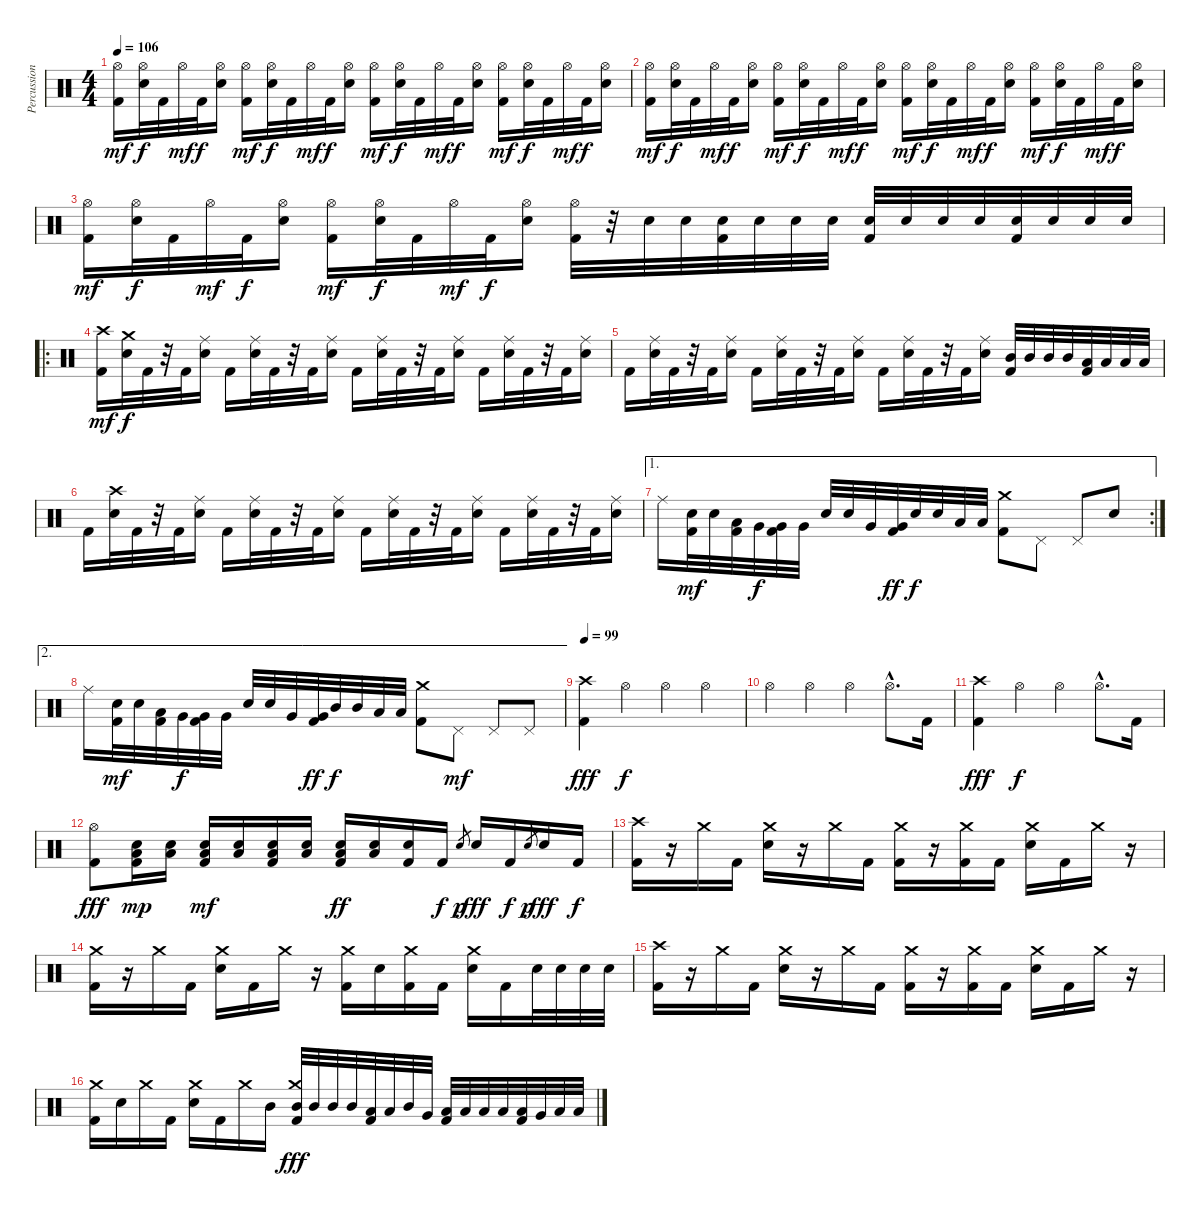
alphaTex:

\track ("Percussion" "Percussion") {instrument percussion}
\staff {score}
\articulation defaults
\ts (4 4)
\tempo 106
\clef neutral
\ks c
("Hi-Hat (open)" "Kick (hit) 2").16{dy mf} ("Hi-Hat (open)" "Electric Snare (hit)").32{dy f} "Kick (hit) 2".32 "Hi-Hat (open)".32{dy mf} "Kick (hit) 2".32{dy f} ("Hi-Hat (open)" "Electric Snare (hit)").16 ("Hi-Hat (open)" "Kick (hit) 2").16{dy mf} ("Hi-Hat (open)" "Electric Snare (hit)").32{dy f} "Kick (hit) 2".32 "Hi-Hat (open)".32{dy mf} "Kick (hit) 2".32{dy f} ("Hi-Hat (open)" "Electric Snare (hit)").16 ("Hi-Hat (open)" "Kick (hit) 2").16{dy mf} ("Hi-Hat (open)" "Electric Snare (hit)").32{dy f} "Kick (hit) 2".32 "Hi-Hat (open)".32{dy mf} "Kick (hit) 2".32{dy f} ("Hi-Hat (open)" "Electric Snare (hit)").16 ("Hi-Hat (open)" "Kick (hit) 2").16{dy mf} ("Hi-Hat (open)" "Electric Snare (hit)").32{dy f} "Kick (hit) 2".32 "Hi-Hat (open)".32{dy mf} "Kick (hit) 2".32{dy f} ("Hi-Hat (open)" "Electric Snare (hit)").16 |
("Hi-Hat (open)" "Kick (hit) 2").16{dy mf} ("Hi-Hat (open)" "Electric Snare (hit)").32{dy f} "Kick (hit) 2".32 "Hi-Hat (open)".32{dy mf} "Kick (hit) 2".32{dy f} ("Hi-Hat (open)" "Electric Snare (hit)").16 ("Hi-Hat (open)" "Kick (hit) 2").16{dy mf} ("Hi-Hat (open)" "Electric Snare (hit)").32{dy f} "Kick (hit) 2".32 "Hi-Hat (open)".32{dy mf} "Kick (hit) 2".32{dy f} ("Hi-Hat (open)" "Electric Snare (hit)").16 ("Hi-Hat (open)" "Kick (hit) 2").16{dy mf} ("Hi-Hat (open)" "Electric Snare (hit)").32{dy f} "Kick (hit) 2".32 "Hi-Hat (open)".32{dy mf} "Kick (hit) 2".32{dy f} ("Hi-Hat (open)" "Electric Snare (hit)").16 ("Hi-Hat (open)" "Kick (hit) 2").16{dy mf} ("Hi-Hat (open)" "Electric Snare (hit)").32{dy f} "Kick (hit) 2".32 "Hi-Hat (open)".32{dy mf} "Kick (hit) 2".32{dy f} ("Hi-Hat (open)" "Electric Snare (hit)").16 |
("Hi-Hat (open)" "Kick (hit) 2").16{dy mf} ("Hi-Hat (open)" "Electric Snare (hit)").32{dy f} "Kick (hit) 2".32 "Hi-Hat (open)".32{dy mf} "Kick (hit) 2".32{dy f} ("Hi-Hat (open)" "Electric Snare (hit)").16 ("Hi-Hat (open)" "Kick (hit) 2").16{dy mf} ("Hi-Hat (open)" "Electric Snare (hit)").32{dy f} "Kick (hit) 2".32 "Hi-Hat (open)".32{dy mf} "Kick (hit) 2".32{dy f} ("Hi-Hat (open)" "Electric Snare (hit)").16 ("Hi-Hat (open)" "Kick (hit) 2").32 r.32 "Electric Snare (hit)".32 "Electric Snare (hit)".32 ("Electric Snare (hit)" "Kick (hit) 2").32 "Electric Snare (hit)".32 "Electric Snare (hit)".32 "Electric Snare (hit)".32 ("Electric Snare (hit)" "Kick (hit) 2").32 "Electric Snare (hit)".32 "Electric Snare (hit)".32 "Electric Snare (hit)".32 ("Electric Snare (hit)" "Kick (hit) 2").32 "Electric Snare (hit)".32 "Electric Snare (hit)".32 "Electric Snare (hit)".32 |
\ro
("Crash high (hit)" "Kick (hit) 2").16{dy mf} ("Crash medium (hit)" "Electric Snare (hit)").32{dy f} "Kick (hit) 2".32 r.32 "Kick (hit) 2".32 ("Ride (middle)" "Electric Snare (hit)").16 "Kick (hit) 2".16 ("Ride (middle)" "Electric Snare (hit)").32 "Kick (hit) 2".32 r.32 "Kick (hit) 2".32 ("Ride (middle)" "Electric Snare (hit)").16 "Kick (hit) 2".16 ("Ride (middle)" "Electric Snare (hit)").32 "Kick (hit) 2".32 r.32 "Kick (hit) 2".32 ("Ride (middle)" "Electric Snare (hit)").16 "Kick (hit) 2".16 ("Ride (middle)" "Electric Snare (hit)").32 "Kick (hit) 2".32 r.32 "Kick (hit) 2".32 ("Ride (middle)" "Electric Snare (hit)").16 |
"Kick (hit) 2".16 ("Ride (middle)" "Electric Snare (hit)").32 "Kick (hit) 2".32 r.32 "Kick (hit) 2".32 ("Ride (middle)" "Electric Snare (hit)").16 "Kick (hit) 2".16 ("Ride (middle)" "Electric Snare (hit)").32 "Kick (hit) 2".32 r.32 "Kick (hit) 2".32 ("Ride (middle)" "Electric Snare (hit)").16 "Kick (hit) 2".16 ("Ride (middle)" "Electric Snare (hit)").32 "Kick (hit) 2".32 r.32 "Kick (hit) 2".32 ("Ride (middle)" "Electric Snare (hit)").16 ("Mid Tom (hit)" "Kick (hit) 2").32 "Mid Tom (hit)".32 "Mid Tom (hit)".32 "Mid Tom (hit)".32 ("Low Tom (hit)" "Kick (hit) 2").32 "Low Tom (hit)".32 "Low Tom (hit)".32 "Low Tom (hit)".32 |
"Kick (hit) 2".16 ("Crash high (hit)" "Electric Snare (hit)").32 "Kick (hit) 2".32 r.32 "Kick (hit) 2".32 ("Ride (middle)" "Electric Snare (hit)").16 "Kick (hit) 2".16 ("Ride (middle)" "Electric Snare (hit)").32 "Kick (hit) 2".32 r.32 "Kick (hit) 2".32 ("Ride (middle)" "Electric Snare (hit)").16 "Kick (hit) 2".16 ("Ride (middle)" "Electric Snare (hit)").32 "Kick (hit) 2".32 r.32 "Kick (hit) 2".32 ("Ride (middle)" "Electric Snare (hit)").16 "Kick (hit) 2".16 ("Ride (middle)" "Electric Snare (hit)").32 "Kick (hit) 2".32 r.32 "Kick (hit) 2".32 ("Ride (middle)" "Electric Snare (hit)").16 |
\ae 1
\rc 2 "Ride (middle)".16
("Electric Snare (hit)" "Kick (hit) 2").32{dy mf} "Electric Snare (hit)".32 ("Low Tom (hit)" "Kick (hit) 2").32 "Very Low Tom (hit)".32{dy f} ("Very Low Tom (hit)" "Kick (hit) 2").32 "Very Low Tom (hit)".32 "Electric Snare (hit)".32 "Electric Snare (hit)".32 "Very Low Tom (hit)".32 ("Very Low Tom (hit)" "Kick (hit) 2").32{dy ff} "Electric Snare (hit)".32{dy f} "Electric Snare (hit)".32 "Low Tom (hit)".32 "Low Tom (hit)".32 ("Crash medium (hit)" "Kick (hit) 2").8 "Pedal Hi-Hat (hit)".8 "Pedal Hi-Hat (hit)".8 "Electric Snare (hit)".8 |
\ae 2 "Ride (middle)".16
("Electric Snare (hit)" "Kick (hit) 2").32{dy mf} "Electric Snare (hit)".32 ("Low Tom (hit)" "Kick (hit) 2").32 "Very Low Tom (hit)".32{dy f} ("Very Low Tom (hit)" "Kick (hit) 2").32 "Very Low Tom (hit)".32 "Electric Snare (hit)".32 "Electric Snare (hit)".32 "Very Low Tom (hit)".32 ("Very Low Tom (hit)" "Kick (hit) 2").32{dy ff} "Mid Tom (hit)".32{dy f} "Mid Tom (hit)".32 "Low Tom (hit)".32 "Low Tom (hit)".32 ("Crash medium (hit)" "Kick (hit) 2").8 "Pedal Hi-Hat (hit)".8{dy mf} "Pedal Hi-Hat (hit)".8 "Pedal Hi-Hat (hit)".8 |
\tempo 99
("Crash high (hit)" "Kick (hit) 2").4{dy fff} "Hi-Hat (open)".4{dy f} "Hi-Hat (open)".4 "Hi-Hat (open)".4 |
"Hi-Hat (open)".4 "Hi-Hat (open)".4 "Hi-Hat (open)".4 "Hi-Hat (open)"{hac}.8{d} "Kick (hit) 2".16 |
("Crash high (hit)" "Kick (hit) 2").4{dy fff} "Hi-Hat (open)".4{dy f} "Hi-Hat (open)".4 "Hi-Hat (open)"{hac}.8{d} "Kick (hit) 2".16 |
("Hi-Hat (open)" "Kick (hit) 2").8{dy fff} ("Electric Snare (hit)" "Low Tom (hit)" "Kick (hit) 2").16{dy mp} ("Electric Snare (hit)" "Low Tom (hit)").16 ("Electric Snare (hit)" "Low Tom (hit)" "Kick (hit) 2").16{dy mf} ("Electric Snare (hit)" "Low Tom (hit)").16 ("Electric Snare (hit)" "Low Tom (hit)" "Kick (hit) 2").16 ("Electric Snare (hit)" "Low Tom (hit)").16 ("Electric Snare (hit)" "Low Tom (hit)" "Kick (hit) 2").16{dy ff} ("Electric Snare (hit)" "Low Tom (hit)").16 ("Electric Snare (hit)" "Kick (hit) 2").16 "Kick (hit) 2".16{dy f} "Electric Snare (hit)".8{gr dy p} "Electric Snare (hit)".16{dy fff} "Kick (hit) 2".16{dy f} "Electric Snare (hit)".8{gr dy p} "Electric Snare (hit)".16{dy fff} "Kick (hit) 2".16{dy f} |
("Crash high (hit)" "Kick (hit) 2").16 r.16 "Crash medium (hit)".16 "Kick (hit) 2".16 ("Crash medium (hit)" "Electric Snare (hit)").16 r.16 "Crash medium (hit)".16 "Kick (hit) 2".16 ("Crash medium (hit)" "Kick (hit) 2").16 r.16 ("Crash medium (hit)" "Kick (hit) 2").16 "Kick (hit) 2".16 ("Crash medium (hit)" "Electric Snare (hit)").16 "Kick (hit) 2".16 "Crash medium (hit)".16 r.16 |
("Crash medium (hit)" "Kick (hit) 2").16 r.16 "Crash medium (hit)".16 "Kick (hit) 2".16 ("Crash medium (hit)" "Electric Snare (hit)").16 "Kick (hit) 2".16 "Crash medium (hit)".16 r.16 ("Crash medium (hit)" "Kick (hit) 2").16 "Electric Snare (hit)".16 ("Crash medium (hit)" "Kick (hit) 2").16 "Kick (hit) 2".16 ("Crash medium (hit)" "Electric Snare (hit)").16 "Kick (hit) 2".16 "Electric Snare (hit)".32 "Electric Snare (hit)".32 "Electric Snare (hit)".32 "Electric Snare (hit)".32 |
("Crash high (hit)" "Kick (hit) 2").16 r.16 "Crash medium (hit)".16 "Kick (hit) 2".16 ("Crash medium (hit)" "Electric Snare (hit)").16 r.16 "Crash medium (hit)".16 "Kick (hit) 2".16 ("Crash medium (hit)" "Kick (hit) 2").16 r.16 ("Crash medium (hit)" "Kick (hit) 2").16 "Kick (hit) 2".16 ("Crash medium (hit)" "Electric Snare (hit)").16 "Kick (hit) 2".16 "Crash medium (hit)".16 r.16 |
("Crash medium (hit)" "Kick (hit) 2").16 "Electric Snare (hit)".16 "Crash medium (hit)".16 "Kick (hit) 2".16 ("Crash medium (hit)" "Electric Snare (hit)").16 "Kick (hit) 2".16 "Crash medium (hit)".16 "Mid Tom (hit)".16 ("Crash medium (hit)" "Mid Tom (hit)" "Kick (hit) 2").32{dy fff} "Mid Tom (hit)".32 "Mid Tom (hit)".32 "Mid Tom (hit)".32 ("Low Tom (hit)" "Kick (hit) 2").32 "Low Tom (hit)".32 "Mid Tom (hit)".32 "Very Low Tom (hit)".32 ("Low Tom (hit)" "Kick (hit) 2").32 "Low Tom (hit)".32 "Low Tom (hit)".32 "Low Tom (hit)".32 ("Low Tom (hit)" "Kick (hit) 2").32 "Very Low Tom (hit)".32 "Low Floor Tom (hit)".32 "Low Floor Tom (hit)".32
